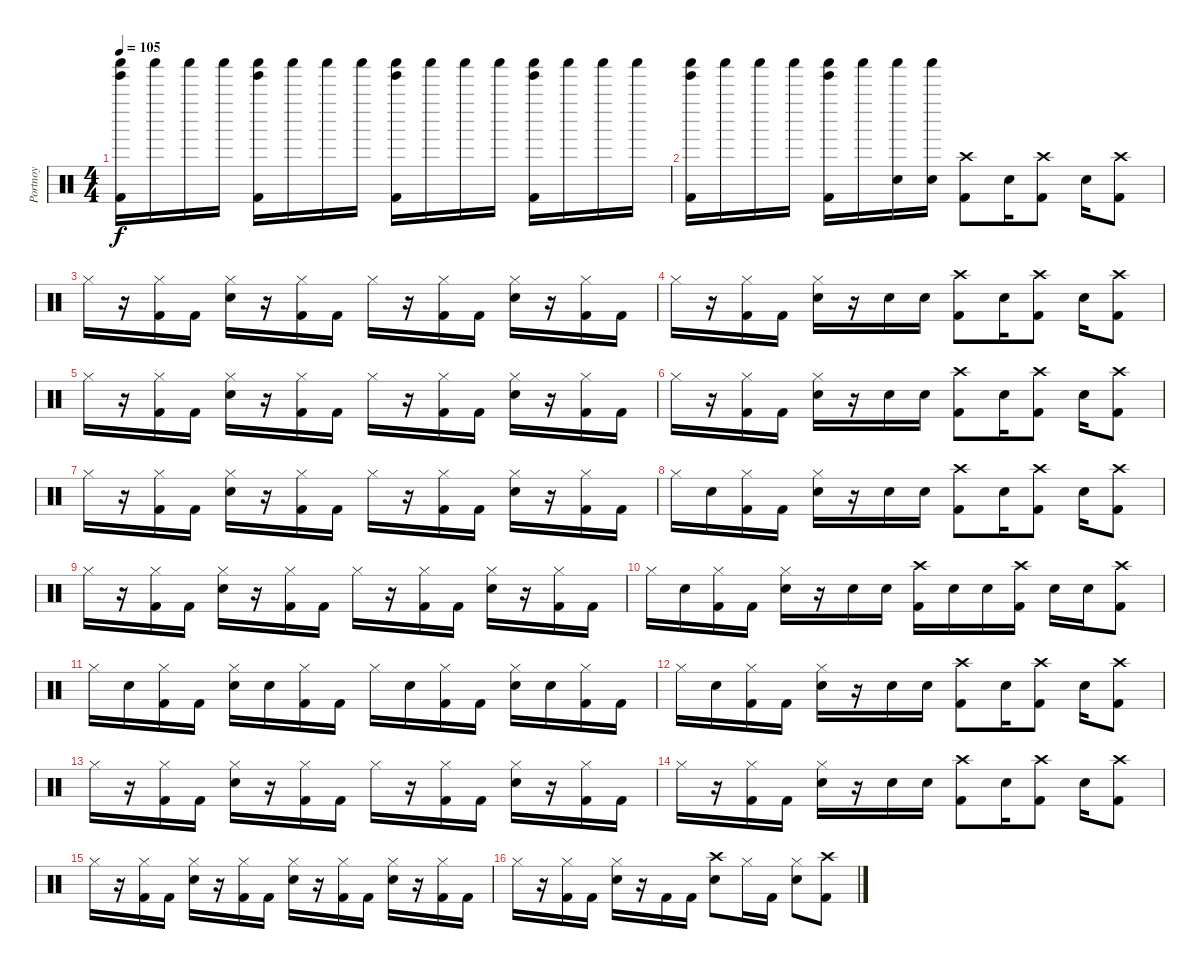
\track ("Portnoy" "Portnoy") {instrument percussion}
\staff {score}
\articulation defaults
\ts (4 4)
\tempo 105
\clef neutral
\ks c
("Shaker (hit)" "Tinkle Bell (hit)" "Kick (hit) 2").16{dy f} "Shaker (hit)".16 "Shaker (hit)".16 "Shaker (hit)".16 ("Shaker (hit)" "Tinkle Bell (hit)" "Kick (hit) 2").16 "Shaker (hit)".16 "Shaker (hit)".16 "Shaker (hit)".16 ("Shaker (hit)" "Tinkle Bell (hit)" "Kick (hit) 2").16 "Shaker (hit)".16 "Shaker (hit)".16 "Shaker (hit)".16 ("Shaker (hit)" "Tinkle Bell (hit)" "Kick (hit) 2").16 "Shaker (hit)".16 "Shaker (hit)".16 "Shaker (hit)".16 |
("Shaker (hit)" "Tinkle Bell (hit)" "Kick (hit) 2").16 "Shaker (hit)".16 "Shaker (hit)".16 "Shaker (hit)".16 ("Shaker (hit)" "Tinkle Bell (hit)" "Kick (hit) 2").16 "Shaker (hit)".16 ("Shaker (hit)" "Electric Snare (hit)").16 ("Shaker (hit)" "Electric Snare (hit)").16 ("Crash high (hit)" "Kick (hit) 2").8 "Electric Snare (hit)".16 ("Crash high (hit)" "Kick (hit) 2").8 "Electric Snare (hit)".16 ("Crash high (hit)" "Kick (hit) 2").8 |
"Hi-Hat (closed)".16 r.16 ("Hi-Hat (closed)" "Kick (hit) 2").16 "Kick (hit) 2".16 ("Hi-Hat (closed)" "Electric Snare (hit)").16 r.16 ("Hi-Hat (closed)" "Kick (hit) 2").16 "Kick (hit) 2".16 "Hi-Hat (closed)".16 r.16 ("Hi-Hat (closed)" "Kick (hit) 2").16 "Kick (hit) 2".16 ("Hi-Hat (closed)" "Electric Snare (hit)").16 r.16 ("Hi-Hat (closed)" "Kick (hit) 2").16 "Kick (hit) 2".16 |
"Hi-Hat (closed)".16 r.16 ("Hi-Hat (closed)" "Kick (hit) 2").16 "Kick (hit) 2".16 ("Hi-Hat (closed)" "Electric Snare (hit)").16 r.16 "Electric Snare (hit)".16 "Electric Snare (hit)".16 ("Crash high (hit)" "Kick (hit) 2").8 "Electric Snare (hit)".16 ("Crash high (hit)" "Kick (hit) 2").8 "Electric Snare (hit)".16 ("Crash high (hit)" "Kick (hit) 2").8 |
"Hi-Hat (closed)".16 r.16 ("Hi-Hat (closed)" "Kick (hit) 2").16 "Kick (hit) 2".16 ("Hi-Hat (closed)" "Electric Snare (hit)").16 r.16 ("Hi-Hat (closed)" "Kick (hit) 2").16 "Kick (hit) 2".16 "Hi-Hat (closed)".16 r.16 ("Hi-Hat (closed)" "Kick (hit) 2").16 "Kick (hit) 2".16 ("Hi-Hat (closed)" "Electric Snare (hit)").16 r.16 ("Hi-Hat (closed)" "Kick (hit) 2").16 "Kick (hit) 2".16 |
"Hi-Hat (closed)".16 r.16 ("Hi-Hat (closed)" "Kick (hit) 2").16 "Kick (hit) 2".16 ("Hi-Hat (closed)" "Electric Snare (hit)").16 r.16 "Electric Snare (hit)".16 "Electric Snare (hit)".16 ("Crash high (hit)" "Kick (hit) 2").8 "Electric Snare (hit)".16 ("Crash high (hit)" "Kick (hit) 2").8 "Electric Snare (hit)".16 ("Crash high (hit)" "Kick (hit) 2").8 |
"Hi-Hat (closed)".16 r.16 ("Hi-Hat (closed)" "Kick (hit) 2").16 "Kick (hit) 2".16 ("Hi-Hat (closed)" "Electric Snare (hit)").16 r.16 ("Hi-Hat (closed)" "Kick (hit) 2").16 "Kick (hit) 2".16 "Hi-Hat (closed)".16 r.16 ("Hi-Hat (closed)" "Kick (hit) 2").16 "Kick (hit) 2".16 ("Hi-Hat (closed)" "Electric Snare (hit)").16 r.16 ("Hi-Hat (closed)" "Kick (hit) 2").16 "Kick (hit) 2".16 |
"Hi-Hat (closed)".16 "Electric Snare (hit)".16 ("Hi-Hat (closed)" "Kick (hit) 2").16 "Kick (hit) 2".16 ("Hi-Hat (closed)" "Electric Snare (hit)").16 r.16 "Electric Snare (hit)".16 "Electric Snare (hit)".16 ("Crash high (hit)" "Kick (hit) 2").8 "Electric Snare (hit)".16 ("Crash high (hit)" "Kick (hit) 2").8 "Electric Snare (hit)".16 ("Crash high (hit)" "Kick (hit) 2").8 |
"Hi-Hat (closed)".16 r.16 ("Hi-Hat (closed)" "Kick (hit) 2").16 "Kick (hit) 2".16 ("Hi-Hat (closed)" "Electric Snare (hit)").16 r.16 ("Hi-Hat (closed)" "Kick (hit) 2").16 "Kick (hit) 2".16 "Hi-Hat (closed)".16 r.16 ("Hi-Hat (closed)" "Kick (hit) 2").16 "Kick (hit) 2".16 ("Hi-Hat (closed)" "Electric Snare (hit)").16 r.16 ("Hi-Hat (closed)" "Kick (hit) 2").16 "Kick (hit) 2".16 |
"Hi-Hat (closed)".16 "Electric Snare (hit)".16 ("Hi-Hat (closed)" "Kick (hit) 2").16 "Kick (hit) 2".16 ("Hi-Hat (closed)" "Electric Snare (hit)").16 r.16 "Electric Snare (hit)".16 "Electric Snare (hit)".16 ("Crash high (hit)" "Kick (hit) 2").16 "Electric Snare (hit)".16 "Electric Snare (hit)".16 ("Crash high (hit)" "Kick (hit) 2").16 "Electric Snare (hit)".16 "Electric Snare (hit)".16 ("Crash high (hit)" "Kick (hit) 2").8 |
"Hi-Hat (closed)".16 "Electric Snare (hit)".16 ("Hi-Hat (closed)" "Kick (hit) 2").16 "Kick (hit) 2".16 ("Hi-Hat (closed)" "Electric Snare (hit)").16 "Electric Snare (hit)".16 ("Hi-Hat (closed)" "Kick (hit) 2").16 "Kick (hit) 2".16 "Hi-Hat (closed)".16 "Electric Snare (hit)".16 ("Hi-Hat (closed)" "Kick (hit) 2").16 "Kick (hit) 2".16 ("Hi-Hat (closed)" "Electric Snare (hit)").16 "Electric Snare (hit)".16 ("Hi-Hat (closed)" "Kick (hit) 2").16 "Kick (hit) 2".16 |
"Hi-Hat (closed)".16 "Electric Snare (hit)".16 ("Hi-Hat (closed)" "Kick (hit) 2").16 "Kick (hit) 2".16 ("Hi-Hat (closed)" "Electric Snare (hit)").16 r.16 "Electric Snare (hit)".16 "Electric Snare (hit)".16 ("Crash high (hit)" "Kick (hit) 2").8 "Electric Snare (hit)".16 ("Crash high (hit)" "Kick (hit) 2").8 "Electric Snare (hit)".16 ("Crash high (hit)" "Kick (hit) 2").8 |
"Hi-Hat (closed)".16 r.16 ("Hi-Hat (closed)" "Kick (hit) 2").16 "Kick (hit) 2".16 ("Hi-Hat (closed)" "Electric Snare (hit)").16 r.16 ("Hi-Hat (closed)" "Kick (hit) 2").16 "Kick (hit) 2".16 "Hi-Hat (closed)".16 r.16 ("Hi-Hat (closed)" "Kick (hit) 2").16 "Kick (hit) 2".16 ("Hi-Hat (closed)" "Electric Snare (hit)").16 r.16 ("Hi-Hat (closed)" "Kick (hit) 2").16 "Kick (hit) 2".16 |
"Hi-Hat (closed)".16 r.16 ("Hi-Hat (closed)" "Kick (hit) 2").16 "Kick (hit) 2".16 ("Hi-Hat (closed)" "Electric Snare (hit)").16 r.16 "Electric Snare (hit)".16 "Electric Snare (hit)".16 ("Crash high (hit)" "Kick (hit) 2").8 "Electric Snare (hit)".16 ("Crash high (hit)" "Kick (hit) 2").8 "Electric Snare (hit)".16 ("Crash high (hit)" "Kick (hit) 2").8 |
"Hi-Hat (closed)".16 r.16 ("Hi-Hat (closed)" "Kick (hit) 2").16 "Kick (hit) 2".16 ("Hi-Hat (closed)" "Electric Snare (hit)").16 r.16 ("Hi-Hat (closed)" "Kick (hit) 2").16 "Kick (hit) 2".16 ("Hi-Hat (closed)" "Electric Snare (hit)").16 r.16 ("Hi-Hat (closed)" "Kick (hit) 2").16 "Kick (hit) 2".16 ("Hi-Hat (closed)" "Electric Snare (hit)").16 r.16 ("Hi-Hat (closed)" "Kick (hit) 2").16 "Kick (hit) 2".16 |
"Hi-Hat (closed)".16 r.16 ("Hi-Hat (closed)" "Kick (hit) 2").16 "Kick (hit) 2".16 ("Hi-Hat (closed)" "Electric Snare (hit)").16 r.16 "Kick (hit) 2".16 "Kick (hit) 2".16 ("Crash high (hit)" "Electric Snare (hit)").8 "Hi-Hat (closed)".16 "Kick (hit) 2".16 ("Hi-Hat (closed)" "Electric Snare (hit)").8 ("Crash high (hit)" "Kick (hit) 2").8
